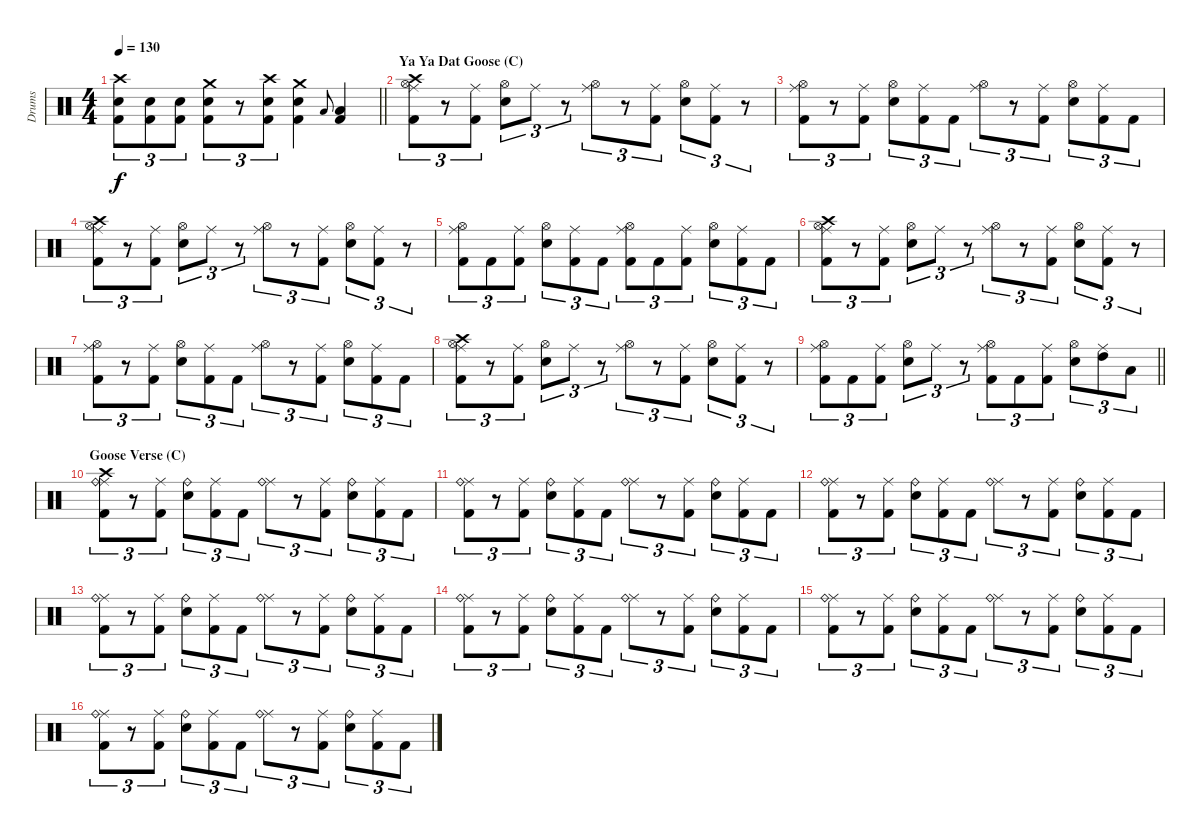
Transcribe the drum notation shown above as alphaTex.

\track ("Drums" "Drums") {instrument percussion}
\staff {score}
\articulation defaults
\ts (4 4)
\tempo 130
\clef neutral
\barLineRight lightlight
\ks c
("Crash high (hit)" "Snare (hit) 2" "Kick (hit) 2").8{tu (3 2) dy f} ("Snare (hit) 2" "Kick (hit) 2").8{tu (3 2)} ("Snare (hit) 2" "Kick (hit) 2").8{tu (3 2)} ("Crash medium (hit)" "Snare (hit) 2" "Kick (hit) 2").8{tu (3 2)} r.8{tu (3 2)} ("Crash high (hit)" "Snare (hit) 2" "Kick (hit) 2").8{tu (3 2)} ("Crash medium (hit)" "Snare (hit) 2" "Kick (hit) 2").4 "Low Floor Tom (hit)".8{gr onbeat} ("Low Floor Tom (hit)" "Kick (hit) 2").4 |
\section ("" "Ya Ya Dat Goose (C)")
("Crash high (hit)" "Ride (middle)" "Hi-Hat (open)" "Kick (hit) 2").8{tu (3 2)} r.8{tu (3 2)} ("Ride (middle)" "Kick (hit) 2").8{tu (3 2)} ("Hi-Hat (open)" "Snare (hit) 2").8{tu (3 2)} "Ride (middle)".8{tu (3 2)} r.8{tu (3 2)} ("Ride (middle)" "Hi-Hat (open)").8{tu (3 2)} r.8{tu (3 2)} ("Ride (middle)" "Kick (hit) 2").8{tu (3 2)} ("Hi-Hat (open)" "Snare (hit) 2").8{tu (3 2)} ("Ride (middle)" "Kick (hit) 2").8{tu (3 2)} r.8{tu (3 2)} |
("Ride (middle)" "Hi-Hat (open)" "Kick (hit) 2").8{tu (3 2)} r.8{tu (3 2)} ("Ride (middle)" "Kick (hit) 2").8{tu (3 2)} ("Hi-Hat (open)" "Snare (hit) 2").8{tu (3 2)} ("Ride (middle)" "Kick (hit) 2").8{tu (3 2)} "Kick (hit) 2".8{tu (3 2)} ("Ride (middle)" "Hi-Hat (open)").8{tu (3 2)} r.8{tu (3 2)} ("Ride (middle)" "Kick (hit) 2").8{tu (3 2)} ("Hi-Hat (open)" "Snare (hit) 2").8{tu (3 2)} ("Ride (middle)" "Kick (hit) 2").8{tu (3 2)} "Kick (hit) 2".8{tu (3 2)} |
("Crash high (hit)" "Ride (middle)" "Hi-Hat (open)" "Kick (hit) 2").8{tu (3 2)} r.8{tu (3 2)} ("Ride (middle)" "Kick (hit) 2").8{tu (3 2)} ("Hi-Hat (open)" "Snare (hit) 2").8{tu (3 2)} "Ride (middle)".8{tu (3 2)} r.8{tu (3 2)} ("Ride (middle)" "Hi-Hat (open)").8{tu (3 2)} r.8{tu (3 2)} ("Ride (middle)" "Kick (hit) 2").8{tu (3 2)} ("Hi-Hat (open)" "Snare (hit) 2").8{tu (3 2)} ("Ride (middle)" "Kick (hit) 2").8{tu (3 2)} r.8{tu (3 2)} |
("Ride (middle)" "Hi-Hat (open)" "Kick (hit) 2").8{tu (3 2)} "Kick (hit) 2".8{tu (3 2)} ("Ride (middle)" "Kick (hit) 2").8{tu (3 2)} ("Hi-Hat (open)" "Snare (hit) 2").8{tu (3 2)} ("Ride (middle)" "Kick (hit) 2").8{tu (3 2)} "Kick (hit) 2".8{tu (3 2)} ("Ride (middle)" "Hi-Hat (open)" "Kick (hit) 2").8{tu (3 2)} "Kick (hit) 2".8{tu (3 2)} ("Ride (middle)" "Kick (hit) 2").8{tu (3 2)} ("Hi-Hat (open)" "Snare (hit) 2").8{tu (3 2)} ("Ride (middle)" "Kick (hit) 2").8{tu (3 2)} "Kick (hit) 2".8{tu (3 2)} |
("Crash high (hit)" "Ride (middle)" "Hi-Hat (open)" "Kick (hit) 2").8{tu (3 2)} r.8{tu (3 2)} ("Ride (middle)" "Kick (hit) 2").8{tu (3 2)} ("Hi-Hat (open)" "Snare (hit) 2").8{tu (3 2)} "Ride (middle)".8{tu (3 2)} r.8{tu (3 2)} ("Ride (middle)" "Hi-Hat (open)").8{tu (3 2)} r.8{tu (3 2)} ("Ride (middle)" "Kick (hit) 2").8{tu (3 2)} ("Hi-Hat (open)" "Snare (hit) 2").8{tu (3 2)} ("Ride (middle)" "Kick (hit) 2").8{tu (3 2)} r.8{tu (3 2)} |
("Ride (middle)" "Hi-Hat (open)" "Kick (hit) 2").8{tu (3 2)} r.8{tu (3 2)} ("Ride (middle)" "Kick (hit) 2").8{tu (3 2)} ("Hi-Hat (open)" "Snare (hit) 2").8{tu (3 2)} ("Ride (middle)" "Kick (hit) 2").8{tu (3 2)} "Kick (hit) 2".8{tu (3 2)} ("Ride (middle)" "Hi-Hat (open)").8{tu (3 2)} r.8{tu (3 2)} ("Ride (middle)" "Kick (hit) 2").8{tu (3 2)} ("Hi-Hat (open)" "Snare (hit) 2").8{tu (3 2)} ("Ride (middle)" "Kick (hit) 2").8{tu (3 2)} "Kick (hit) 2".8{tu (3 2)} |
("Crash high (hit)" "Ride (middle)" "Hi-Hat (open)" "Kick (hit) 2").8{tu (3 2)} r.8{tu (3 2)} ("Ride (middle)" "Kick (hit) 2").8{tu (3 2)} ("Hi-Hat (open)" "Snare (hit) 2").8{tu (3 2)} "Ride (middle)".8{tu (3 2)} r.8{tu (3 2)} ("Ride (middle)" "Hi-Hat (open)").8{tu (3 2)} r.8{tu (3 2)} ("Ride (middle)" "Kick (hit) 2").8{tu (3 2)} ("Hi-Hat (open)" "Snare (hit) 2").8{tu (3 2)} ("Ride (middle)" "Kick (hit) 2").8{tu (3 2)} r.8{tu (3 2)} |
\barLineRight lightlight
("Ride (middle)" "Hi-Hat (open)" "Kick (hit) 2").8{tu (3 2)} "Kick (hit) 2".8{tu (3 2)} ("Ride (middle)" "Kick (hit) 2").8{tu (3 2)} ("Hi-Hat (open)" "Snare (hit) 2").8{tu (3 2)} "Ride (middle)".8{tu (3 2)} r.8{tu (3 2)} ("Ride (middle)" "Hi-Hat (open)" "Kick (hit) 2").8{tu (3 2)} "Kick (hit) 2".8{tu (3 2)} ("Ride (middle)" "Kick (hit) 2").8{tu (3 2)} ("Hi-Hat (open)" "Snare (hit) 2").8{tu (3 2)} ("Ride (middle)" "High Tom (hit)").8{tu (3 2)} "Low Tom (hit)".8{tu (3 2)} |
\section ("" "Goose Verse (C)")
("Crash high (hit)" "Ride (middle)" "Ride (bell)" "Kick (hit) 2").8{tu (3 2)} r.8{tu (3 2)} ("Ride (middle)" "Kick (hit) 2").8{tu (3 2)} ("Ride (bell)" "Snare (hit) 2").8{tu (3 2)} ("Ride (middle)" "Kick (hit) 2").8{tu (3 2)} "Kick (hit) 2".8{tu (3 2)} ("Ride (middle)" "Ride (bell)").8{tu (3 2)} r.8{tu (3 2)} ("Ride (middle)" "Kick (hit) 2").8{tu (3 2)} ("Ride (bell)" "Snare (hit) 2").8{tu (3 2)} ("Ride (middle)" "Kick (hit) 2").8{tu (3 2)} "Kick (hit) 2".8{tu (3 2)} |
("Ride (middle)" "Ride (bell)" "Kick (hit) 2").8{tu (3 2)} r.8{tu (3 2)} ("Ride (middle)" "Kick (hit) 2").8{tu (3 2)} ("Ride (bell)" "Snare (hit) 2").8{tu (3 2)} ("Ride (middle)" "Kick (hit) 2").8{tu (3 2)} "Kick (hit) 2".8{tu (3 2)} ("Ride (middle)" "Ride (bell)").8{tu (3 2)} r.8{tu (3 2)} ("Ride (middle)" "Kick (hit) 2").8{tu (3 2)} ("Ride (bell)" "Snare (hit) 2").8{tu (3 2)} ("Ride (middle)" "Kick (hit) 2").8{tu (3 2)} "Kick (hit) 2".8{tu (3 2)} |
("Ride (middle)" "Ride (bell)" "Kick (hit) 2").8{tu (3 2)} r.8{tu (3 2)} ("Ride (middle)" "Kick (hit) 2").8{tu (3 2)} ("Ride (bell)" "Snare (hit) 2").8{tu (3 2)} ("Ride (middle)" "Kick (hit) 2").8{tu (3 2)} "Kick (hit) 2".8{tu (3 2)} ("Ride (middle)" "Ride (bell)").8{tu (3 2)} r.8{tu (3 2)} ("Ride (middle)" "Kick (hit) 2").8{tu (3 2)} ("Ride (bell)" "Snare (hit) 2").8{tu (3 2)} ("Ride (middle)" "Kick (hit) 2").8{tu (3 2)} "Kick (hit) 2".8{tu (3 2)} |
("Ride (middle)" "Ride (bell)" "Kick (hit) 2").8{tu (3 2)} r.8{tu (3 2)} ("Ride (middle)" "Kick (hit) 2").8{tu (3 2)} ("Ride (bell)" "Snare (hit) 2").8{tu (3 2)} ("Ride (middle)" "Kick (hit) 2").8{tu (3 2)} "Kick (hit) 2".8{tu (3 2)} ("Ride (middle)" "Ride (bell)").8{tu (3 2)} r.8{tu (3 2)} ("Ride (middle)" "Kick (hit) 2").8{tu (3 2)} ("Ride (bell)" "Snare (hit) 2").8{tu (3 2)} ("Ride (middle)" "Kick (hit) 2").8{tu (3 2)} "Kick (hit) 2".8{tu (3 2)} |
("Ride (middle)" "Ride (bell)" "Kick (hit) 2").8{tu (3 2)} r.8{tu (3 2)} ("Ride (middle)" "Kick (hit) 2").8{tu (3 2)} ("Ride (bell)" "Snare (hit) 2").8{tu (3 2)} ("Ride (middle)" "Kick (hit) 2").8{tu (3 2)} "Kick (hit) 2".8{tu (3 2)} ("Ride (middle)" "Ride (bell)").8{tu (3 2)} r.8{tu (3 2)} ("Ride (middle)" "Kick (hit) 2").8{tu (3 2)} ("Ride (bell)" "Snare (hit) 2").8{tu (3 2)} ("Ride (middle)" "Kick (hit) 2").8{tu (3 2)} "Kick (hit) 2".8{tu (3 2)} |
("Ride (middle)" "Ride (bell)" "Kick (hit) 2").8{tu (3 2)} r.8{tu (3 2)} ("Ride (middle)" "Kick (hit) 2").8{tu (3 2)} ("Ride (bell)" "Snare (hit) 2").8{tu (3 2)} ("Ride (middle)" "Kick (hit) 2").8{tu (3 2)} "Kick (hit) 2".8{tu (3 2)} ("Ride (middle)" "Ride (bell)").8{tu (3 2)} r.8{tu (3 2)} ("Ride (middle)" "Kick (hit) 2").8{tu (3 2)} ("Ride (bell)" "Snare (hit) 2").8{tu (3 2)} ("Ride (middle)" "Kick (hit) 2").8{tu (3 2)} "Kick (hit) 2".8{tu (3 2)} |
("Ride (middle)" "Ride (bell)" "Kick (hit) 2").8{tu (3 2)} r.8{tu (3 2)} ("Ride (middle)" "Kick (hit) 2").8{tu (3 2)} ("Ride (bell)" "Snare (hit) 2").8{tu (3 2)} ("Ride (middle)" "Kick (hit) 2").8{tu (3 2)} "Kick (hit) 2".8{tu (3 2)} ("Ride (middle)" "Ride (bell)").8{tu (3 2)} r.8{tu (3 2)} ("Ride (middle)" "Kick (hit) 2").8{tu (3 2)} ("Ride (bell)" "Snare (hit) 2").8{tu (3 2)} ("Ride (middle)" "Kick (hit) 2").8{tu (3 2)} "Kick (hit) 2".8{tu (3 2)}
